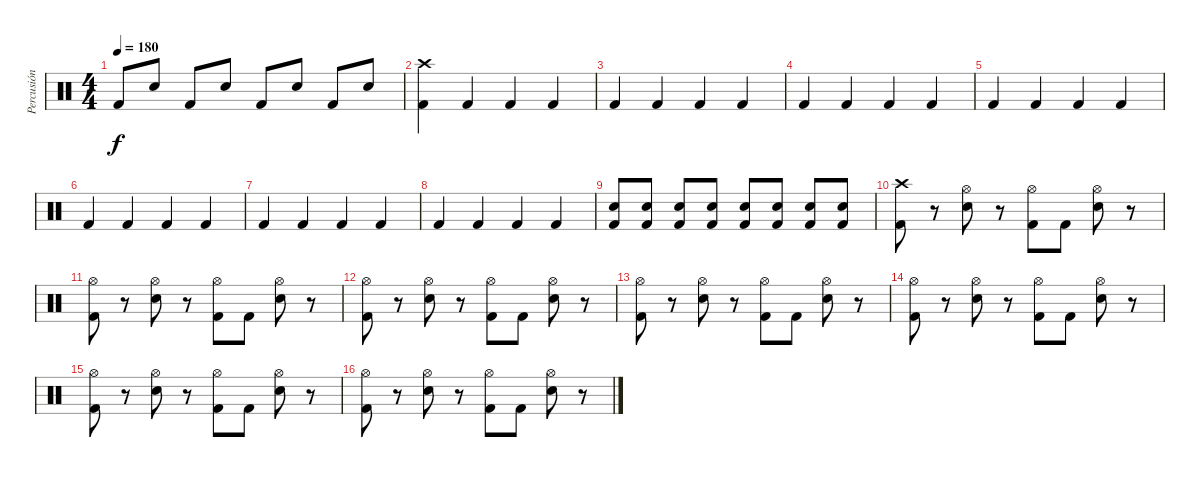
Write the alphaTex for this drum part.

\track ("Percusión" "Percusión") {instrument percussion}
\staff {score}
\articulation defaults
\ts (4 4)
\tempo 180
\clef neutral
\ks c "Kick (hit) 2".8{dy f} "Electric Snare (hit)".8 "Kick (hit) 2".8 "Electric Snare (hit)".8 "Kick (hit) 2".8 "Electric Snare (hit)".8 "Kick (hit) 2".8 "Electric Snare (hit)".8
|
("Crash high (hit)" "Kick (hit) 2").4 "Kick (hit) 2".4 "Kick (hit) 2".4 "Kick (hit) 2".4 |
"Kick (hit) 2".4 "Kick (hit) 2".4 "Kick (hit) 2".4 "Kick (hit) 2".4 |
"Kick (hit) 2".4 "Kick (hit) 2".4 "Kick (hit) 2".4 "Kick (hit) 2".4 |
"Kick (hit) 2".4 "Kick (hit) 2".4 "Kick (hit) 2".4 "Kick (hit) 2".4 |
"Kick (hit) 2".4 "Kick (hit) 2".4 "Kick (hit) 2".4 "Kick (hit) 2".4 |
"Kick (hit) 2".4 "Kick (hit) 2".4 "Kick (hit) 2".4 "Kick (hit) 2".4 |
"Kick (hit) 2".4 "Kick (hit) 2".4 "Kick (hit) 2".4 "Kick (hit) 2".4 |
("Kick (hit) 2" "Electric Snare (hit)").8 ("Kick (hit) 2" "Electric Snare (hit)").8 ("Kick (hit) 2" "Electric Snare (hit)").8 ("Kick (hit) 2" "Electric Snare (hit)").8 ("Kick (hit) 2" "Electric Snare (hit)").8 ("Kick (hit) 2" "Electric Snare (hit)").8 ("Kick (hit) 2" "Electric Snare (hit)").8 ("Kick (hit) 2" "Electric Snare (hit)").8 |
("Crash high (hit)" "Kick (hit) 2").8 r.8 ("Hi-Hat (open)" "Electric Snare (hit)").8 r.8 ("Hi-Hat (open)" "Kick (hit) 2").8 "Kick (hit) 2".8 ("Hi-Hat (open)" "Electric Snare (hit)").8 r.8 |
("Hi-Hat (open)" "Kick (hit) 2").8 r.8 ("Hi-Hat (open)" "Electric Snare (hit)").8 r.8 ("Hi-Hat (open)" "Kick (hit) 2").8 "Kick (hit) 2".8 ("Hi-Hat (open)" "Electric Snare (hit)").8 r.8 |
("Hi-Hat (open)" "Kick (hit) 2").8 r.8 ("Hi-Hat (open)" "Electric Snare (hit)").8 r.8 ("Hi-Hat (open)" "Kick (hit) 2").8 "Kick (hit) 2".8 ("Hi-Hat (open)" "Electric Snare (hit)").8 r.8 |
("Hi-Hat (open)" "Kick (hit) 2").8 r.8 ("Hi-Hat (open)" "Electric Snare (hit)").8 r.8 ("Hi-Hat (open)" "Kick (hit) 2").8 "Kick (hit) 2".8 ("Hi-Hat (open)" "Electric Snare (hit)").8 r.8 |
("Hi-Hat (open)" "Kick (hit) 2").8 r.8 ("Hi-Hat (open)" "Electric Snare (hit)").8 r.8 ("Hi-Hat (open)" "Kick (hit) 2").8 "Kick (hit) 2".8 ("Hi-Hat (open)" "Electric Snare (hit)").8 r.8 |
("Hi-Hat (open)" "Kick (hit) 2").8 r.8 ("Hi-Hat (open)" "Electric Snare (hit)").8 r.8 ("Hi-Hat (open)" "Kick (hit) 2").8 "Kick (hit) 2".8 ("Hi-Hat (open)" "Electric Snare (hit)").8 r.8 |
("Hi-Hat (open)" "Kick (hit) 2").8 r.8 ("Hi-Hat (open)" "Electric Snare (hit)").8 r.8 ("Hi-Hat (open)" "Kick (hit) 2").8 "Kick (hit) 2".8 ("Hi-Hat (open)" "Electric Snare (hit)").8 r.8
